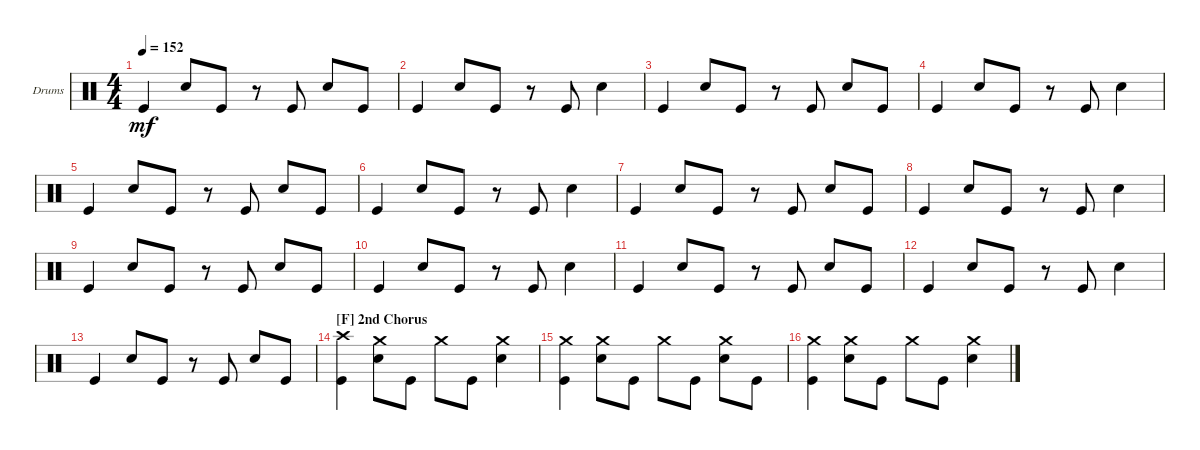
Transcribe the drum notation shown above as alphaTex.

\defaultSystemsLayout 4
\bracketExtendMode groupsimilarinstruments
\firstSystemTrackNameOrientation horizontal
\otherSystemsTrackNameOrientation horizontal
\track ("Drums" "Drums") {instrument percussion}
\staff {score}
\articulation defaults
\ts (4 4)
\tempo 152
\clef neutral
\ks c "Kick (hit)".4{dy mf} "Snare (hit) 2".8 "Kick (hit)".8
r.8 "Kick (hit)".8 "Snare (hit) 2".8 "Kick (hit)".8 |
"Kick (hit)".4 "Snare (hit) 2".8 "Kick (hit)".8 r.8 "Kick (hit)".8 "Snare (hit) 2".4 |
"Kick (hit)".4 "Snare (hit) 2".8 "Kick (hit)".8 r.8 "Kick (hit)".8 "Snare (hit) 2".8 "Kick (hit)".8 |
"Kick (hit)".4 "Snare (hit) 2".8 "Kick (hit)".8 r.8 "Kick (hit)".8 "Snare (hit) 2".4 |
"Kick (hit)".4 "Snare (hit) 2".8 "Kick (hit)".8 r.8 "Kick (hit)".8 "Snare (hit) 2".8 "Kick (hit)".8 |
"Kick (hit)".4 "Snare (hit) 2".8 "Kick (hit)".8 r.8 "Kick (hit)".8 "Snare (hit) 2".4 |
"Kick (hit)".4 "Snare (hit) 2".8 "Kick (hit)".8 r.8 "Kick (hit)".8 "Snare (hit) 2".8 "Kick (hit)".8 |
"Kick (hit)".4 "Snare (hit) 2".8 "Kick (hit)".8 r.8 "Kick (hit)".8 "Snare (hit) 2".4 |
"Kick (hit)".4 "Snare (hit) 2".8 "Kick (hit)".8 r.8 "Kick (hit)".8 "Snare (hit) 2".8 "Kick (hit)".8 |
"Kick (hit)".4 "Snare (hit) 2".8 "Kick (hit)".8 r.8 "Kick (hit)".8 "Snare (hit) 2".4 |
"Kick (hit)".4 "Snare (hit) 2".8 "Kick (hit)".8 r.8 "Kick (hit)".8 "Snare (hit) 2".8 "Kick (hit)".8 |
"Kick (hit)".4 "Snare (hit) 2".8 "Kick (hit)".8 r.8 "Kick (hit)".8 "Snare (hit) 2".4 |
"Kick (hit)".4 "Snare (hit) 2".8 "Kick (hit)".8 r.8 "Kick (hit)".8 "Snare (hit) 2".8 "Kick (hit)".8 |
\section ("F" "2nd Chorus")
("Kick (hit)" "Crash high (hit)").4 ("Snare (hit) 2" "Crash medium (hit)").8 "Kick (hit)".8 "Crash medium (hit)".8 "Kick (hit)".8 ("Snare (hit) 2" "Crash medium (hit)").4 |
("Kick (hit)" "Crash medium (hit)").4 ("Snare (hit) 2" "Crash medium (hit)").8 "Kick (hit)".8 "Crash medium (hit)".8 "Kick (hit)".8 ("Snare (hit) 2" "Crash medium (hit)").8 "Kick (hit)".8 |
("Kick (hit)" "Crash medium (hit)").4 ("Snare (hit) 2" "Crash medium (hit)").8 "Kick (hit)".8 "Crash medium (hit)".8 "Kick (hit)".8 ("Snare (hit) 2" "Crash medium (hit)").4
